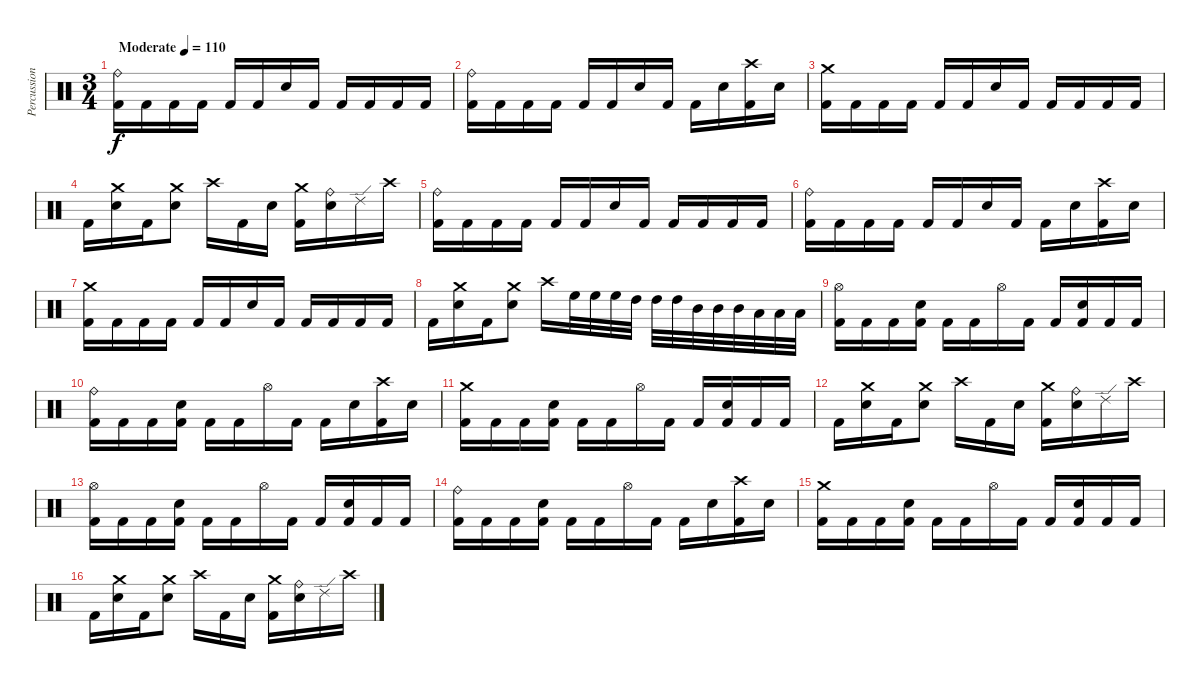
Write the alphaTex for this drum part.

\track ("Percussion" "Percussion") {instrument percussion}
\staff {score}
\articulation defaults
\ts (3 4)
\tempo (110 "Moderate")
\clef neutral
\ks c
("Kick (hit) 2" "Ride (bell)").16{dy f} "Kick (hit) 2".16 "Kick (hit) 2".16 "Kick (hit) 2".16 "Kick (hit) 2".16 "Kick (hit) 2".16 "Snare (hit) 2".16 "Kick (hit) 2".16 "Kick (hit) 2".16 "Kick (hit) 2".16 "Kick (hit) 2".16 "Kick (hit) 2".16 |
("Kick (hit) 2" "Ride (bell)").16 "Kick (hit) 2".16 "Kick (hit) 2".16 "Kick (hit) 2".16 "Kick (hit) 2".16 "Kick (hit) 2".16 "Snare (hit) 2".16 "Kick (hit) 2".16 "Kick (hit) 2".16 "Snare (hit) 2".16 ("Kick (hit) 2" "Crash high (hit)").16 "Snare (hit) 2".16 |
("Kick (hit) 2" "Crash medium (hit)").16 "Kick (hit) 2".16 "Kick (hit) 2".16 "Kick (hit) 2".16 "Kick (hit) 2".16 "Kick (hit) 2".16 "Snare (hit) 2".16 "Kick (hit) 2".16 "Kick (hit) 2".16 "Kick (hit) 2".16 "Kick (hit) 2".16 "Kick (hit) 2".16 |
"Kick (hit) 2".16 ("Snare (hit) 2" "Crash medium (hit)").16 "Kick (hit) 2".16 ("Snare (hit) 2" "Crash medium (hit)").8 "Crash high (hit)".16 "Kick (hit) 2".16 "Snare (hit) 2".16 ("Kick (hit) 2" "Crash medium (hit)").16 ("Snare (hit) 2" "Ride (bell)").16 "Ride (edge) 2".16 "Crash high (hit)".16 |
("Kick (hit) 2" "Ride (bell)").16 "Kick (hit) 2".16 "Kick (hit) 2".16 "Kick (hit) 2".16 "Kick (hit) 2".16 "Kick (hit) 2".16 "Snare (hit) 2".16 "Kick (hit) 2".16 "Kick (hit) 2".16 "Kick (hit) 2".16 "Kick (hit) 2".16 "Kick (hit) 2".16 |
("Kick (hit) 2" "Ride (bell)").16 "Kick (hit) 2".16 "Kick (hit) 2".16 "Kick (hit) 2".16 "Kick (hit) 2".16 "Kick (hit) 2".16 "Snare (hit) 2".16 "Kick (hit) 2".16 "Kick (hit) 2".16 "Snare (hit) 2".16 ("Kick (hit) 2" "Crash high (hit)").16 "Snare (hit) 2".16 |
("Kick (hit) 2" "Crash medium (hit)").16 "Kick (hit) 2".16 "Kick (hit) 2".16 "Kick (hit) 2".16 "Kick (hit) 2".16 "Kick (hit) 2".16 "Snare (hit) 2".16 "Kick (hit) 2".16 "Kick (hit) 2".16 "Kick (hit) 2".16 "Kick (hit) 2".16 "Kick (hit) 2".16 |
"Kick (hit) 2".16 ("Snare (hit) 2" "Crash medium (hit)").16 "Kick (hit) 2".16 ("Snare (hit) 2" "Crash medium (hit)").8 "Crash high (hit)".16 "High Floor Tom (hit)".32 "High Floor Tom (hit)".32 "High Floor Tom (hit)".32 "High Tom (hit)".32 "High Tom (hit)".32 "High Tom (hit)".32 "Mid Tom (hit)".32 "Mid Tom (hit)".32 "Mid Tom (hit)".32 "Low Tom (hit)".32 "Low Tom (hit)".32 "Low Tom (hit)".32 |
("Kick (hit) 2" "Hi-Hat (open)").16 "Kick (hit) 2".16 "Kick (hit) 2".16 ("Kick (hit) 2" "Snare (hit) 2").16 "Kick (hit) 2".16 "Kick (hit) 2".16 "Hi-Hat (open)".16 "Kick (hit) 2".16 "Kick (hit) 2".16 ("Kick (hit) 2" "Snare (hit) 2").16 "Kick (hit) 2".16 "Kick (hit) 2".16 |
("Kick (hit) 2" "Ride (bell)").16 "Kick (hit) 2".16 "Kick (hit) 2".16 ("Kick (hit) 2" "Snare (hit) 2").16 "Kick (hit) 2".16 "Kick (hit) 2".16 "Hi-Hat (open)".16 "Kick (hit) 2".16 "Kick (hit) 2".16 "Snare (hit) 2".16 ("Kick (hit) 2" "Crash high (hit)").16 "Snare (hit) 2".16 |
("Kick (hit) 2" "Crash medium (hit)").16 "Kick (hit) 2".16 "Kick (hit) 2".16 ("Kick (hit) 2" "Snare (hit) 2").16 "Kick (hit) 2".16 "Kick (hit) 2".16 "Hi-Hat (open)".16 "Kick (hit) 2".16 "Kick (hit) 2".16 ("Kick (hit) 2" "Snare (hit) 2").16 "Kick (hit) 2".16 "Kick (hit) 2".16 |
"Kick (hit) 2".16 ("Snare (hit) 2" "Crash medium (hit)").16 "Kick (hit) 2".16 ("Snare (hit) 2" "Crash medium (hit)").8 "Crash high (hit)".16 "Kick (hit) 2".16 "Snare (hit) 2".16 ("Kick (hit) 2" "Crash medium (hit)").16 ("Snare (hit) 2" "Ride (bell)").16 "Ride (edge) 2".16 "Crash high (hit)".16 |
("Kick (hit) 2" "Hi-Hat (open)").16 "Kick (hit) 2".16 "Kick (hit) 2".16 ("Kick (hit) 2" "Snare (hit) 2").16 "Kick (hit) 2".16 "Kick (hit) 2".16 "Hi-Hat (open)".16 "Kick (hit) 2".16 "Kick (hit) 2".16 ("Kick (hit) 2" "Snare (hit) 2").16 "Kick (hit) 2".16 "Kick (hit) 2".16 |
("Kick (hit) 2" "Ride (bell)").16 "Kick (hit) 2".16 "Kick (hit) 2".16 ("Kick (hit) 2" "Snare (hit) 2").16 "Kick (hit) 2".16 "Kick (hit) 2".16 "Hi-Hat (open)".16 "Kick (hit) 2".16 "Kick (hit) 2".16 "Snare (hit) 2".16 ("Kick (hit) 2" "Crash high (hit)").16 "Snare (hit) 2".16 |
("Kick (hit) 2" "Crash medium (hit)").16 "Kick (hit) 2".16 "Kick (hit) 2".16 ("Kick (hit) 2" "Snare (hit) 2").16 "Kick (hit) 2".16 "Kick (hit) 2".16 "Hi-Hat (open)".16 "Kick (hit) 2".16 "Kick (hit) 2".16 ("Kick (hit) 2" "Snare (hit) 2").16 "Kick (hit) 2".16 "Kick (hit) 2".16 |
"Kick (hit) 2".16 ("Snare (hit) 2" "Crash medium (hit)").16 "Kick (hit) 2".16 ("Snare (hit) 2" "Crash medium (hit)").8 "Crash high (hit)".16 "Kick (hit) 2".16 "Snare (hit) 2".16 ("Kick (hit) 2" "Crash medium (hit)").16 ("Snare (hit) 2" "Ride (bell)").16 "Ride (edge) 2".16 "Crash high (hit)".16
